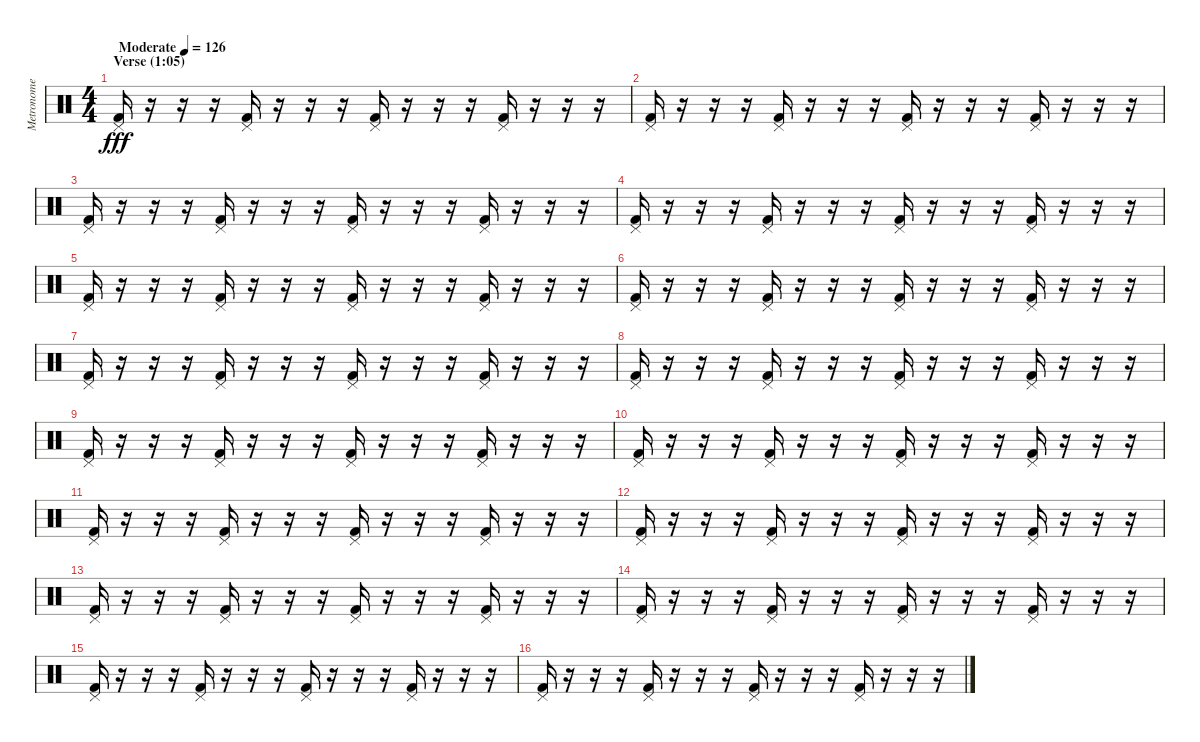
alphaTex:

\track ("Metronome" "Metronome") {mute instrument percussion}
\staff {score}
\articulation defaults
\ts (4 4)
\section ("" "Verse (1:05)")
\tempo (126 "Moderate")
\clef neutral
\ks c
("Pedal Hi-Hat (hit)" "Kick (hit) 2").16{dy fff} r.16 r.16 r.16 ("Pedal Hi-Hat (hit)" "Kick (hit) 2").16 r.16 r.16 r.16 ("Pedal Hi-Hat (hit)" "Kick (hit) 2").16 r.16 r.16 r.16 ("Pedal Hi-Hat (hit)" "Kick (hit) 2").16 r.16 r.16 r.16 |
("Pedal Hi-Hat (hit)" "Kick (hit) 2").16 r.16 r.16 r.16 ("Pedal Hi-Hat (hit)" "Kick (hit) 2").16 r.16 r.16 r.16 ("Pedal Hi-Hat (hit)" "Kick (hit) 2").16 r.16 r.16 r.16 ("Pedal Hi-Hat (hit)" "Kick (hit) 2").16 r.16 r.16 r.16 |
("Pedal Hi-Hat (hit)" "Kick (hit) 2").16 r.16 r.16 r.16 ("Pedal Hi-Hat (hit)" "Kick (hit) 2").16 r.16 r.16 r.16 ("Pedal Hi-Hat (hit)" "Kick (hit) 2").16 r.16 r.16 r.16 ("Pedal Hi-Hat (hit)" "Kick (hit) 2").16 r.16 r.16 r.16 |
("Pedal Hi-Hat (hit)" "Kick (hit) 2").16 r.16 r.16 r.16 ("Pedal Hi-Hat (hit)" "Kick (hit) 2").16 r.16 r.16 r.16 ("Pedal Hi-Hat (hit)" "Kick (hit) 2").16 r.16 r.16 r.16 ("Pedal Hi-Hat (hit)" "Kick (hit) 2").16 r.16 r.16 r.16 |
("Pedal Hi-Hat (hit)" "Kick (hit) 2").16 r.16 r.16 r.16 ("Pedal Hi-Hat (hit)" "Kick (hit) 2").16 r.16 r.16 r.16 ("Pedal Hi-Hat (hit)" "Kick (hit) 2").16 r.16 r.16 r.16 ("Pedal Hi-Hat (hit)" "Kick (hit) 2").16 r.16 r.16 r.16 |
("Pedal Hi-Hat (hit)" "Kick (hit) 2").16 r.16 r.16 r.16 ("Pedal Hi-Hat (hit)" "Kick (hit) 2").16 r.16 r.16 r.16 ("Pedal Hi-Hat (hit)" "Kick (hit) 2").16 r.16 r.16 r.16 ("Pedal Hi-Hat (hit)" "Kick (hit) 2").16 r.16 r.16 r.16 |
("Pedal Hi-Hat (hit)" "Kick (hit) 2").16 r.16 r.16 r.16 ("Pedal Hi-Hat (hit)" "Kick (hit) 2").16 r.16 r.16 r.16 ("Pedal Hi-Hat (hit)" "Kick (hit) 2").16 r.16 r.16 r.16 ("Pedal Hi-Hat (hit)" "Kick (hit) 2").16 r.16 r.16 r.16 |
("Pedal Hi-Hat (hit)" "Kick (hit) 2").16 r.16 r.16 r.16 ("Pedal Hi-Hat (hit)" "Kick (hit) 2").16 r.16 r.16 r.16 ("Pedal Hi-Hat (hit)" "Kick (hit) 2").16 r.16 r.16 r.16 ("Pedal Hi-Hat (hit)" "Kick (hit) 2").16 r.16 r.16 r.16 |
("Pedal Hi-Hat (hit)" "Kick (hit) 2").16 r.16 r.16 r.16 ("Pedal Hi-Hat (hit)" "Kick (hit) 2").16 r.16 r.16 r.16 ("Pedal Hi-Hat (hit)" "Kick (hit) 2").16 r.16 r.16 r.16 ("Pedal Hi-Hat (hit)" "Kick (hit) 2").16 r.16 r.16 r.16 |
("Pedal Hi-Hat (hit)" "Kick (hit) 2").16 r.16 r.16 r.16 ("Pedal Hi-Hat (hit)" "Kick (hit) 2").16 r.16 r.16 r.16 ("Pedal Hi-Hat (hit)" "Kick (hit) 2").16 r.16 r.16 r.16 ("Pedal Hi-Hat (hit)" "Kick (hit) 2").16 r.16 r.16 r.16 |
("Pedal Hi-Hat (hit)" "Kick (hit) 2").16 r.16 r.16 r.16 ("Pedal Hi-Hat (hit)" "Kick (hit) 2").16 r.16 r.16 r.16 ("Pedal Hi-Hat (hit)" "Kick (hit) 2").16 r.16 r.16 r.16 ("Pedal Hi-Hat (hit)" "Kick (hit) 2").16 r.16 r.16 r.16 |
("Pedal Hi-Hat (hit)" "Kick (hit) 2").16 r.16 r.16 r.16 ("Pedal Hi-Hat (hit)" "Kick (hit) 2").16 r.16 r.16 r.16 ("Pedal Hi-Hat (hit)" "Kick (hit) 2").16 r.16 r.16 r.16 ("Pedal Hi-Hat (hit)" "Kick (hit) 2").16 r.16 r.16 r.16 |
("Pedal Hi-Hat (hit)" "Kick (hit) 2").16 r.16 r.16 r.16 ("Pedal Hi-Hat (hit)" "Kick (hit) 2").16 r.16 r.16 r.16 ("Pedal Hi-Hat (hit)" "Kick (hit) 2").16 r.16 r.16 r.16 ("Pedal Hi-Hat (hit)" "Kick (hit) 2").16 r.16 r.16 r.16 |
("Pedal Hi-Hat (hit)" "Kick (hit) 2").16 r.16 r.16 r.16 ("Pedal Hi-Hat (hit)" "Kick (hit) 2").16 r.16 r.16 r.16 ("Pedal Hi-Hat (hit)" "Kick (hit) 2").16 r.16 r.16 r.16 ("Pedal Hi-Hat (hit)" "Kick (hit) 2").16 r.16 r.16 r.16 |
("Pedal Hi-Hat (hit)" "Kick (hit) 2").16 r.16 r.16 r.16 ("Pedal Hi-Hat (hit)" "Kick (hit) 2").16 r.16 r.16 r.16 ("Pedal Hi-Hat (hit)" "Kick (hit) 2").16 r.16 r.16 r.16 ("Pedal Hi-Hat (hit)" "Kick (hit) 2").16 r.16 r.16 r.16 |
("Pedal Hi-Hat (hit)" "Kick (hit) 2").16 r.16 r.16 r.16 ("Pedal Hi-Hat (hit)" "Kick (hit) 2").16 r.16 r.16 r.16 ("Pedal Hi-Hat (hit)" "Kick (hit) 2").16 r.16 r.16 r.16 ("Pedal Hi-Hat (hit)" "Kick (hit) 2").16 r.16 r.16 r.16
